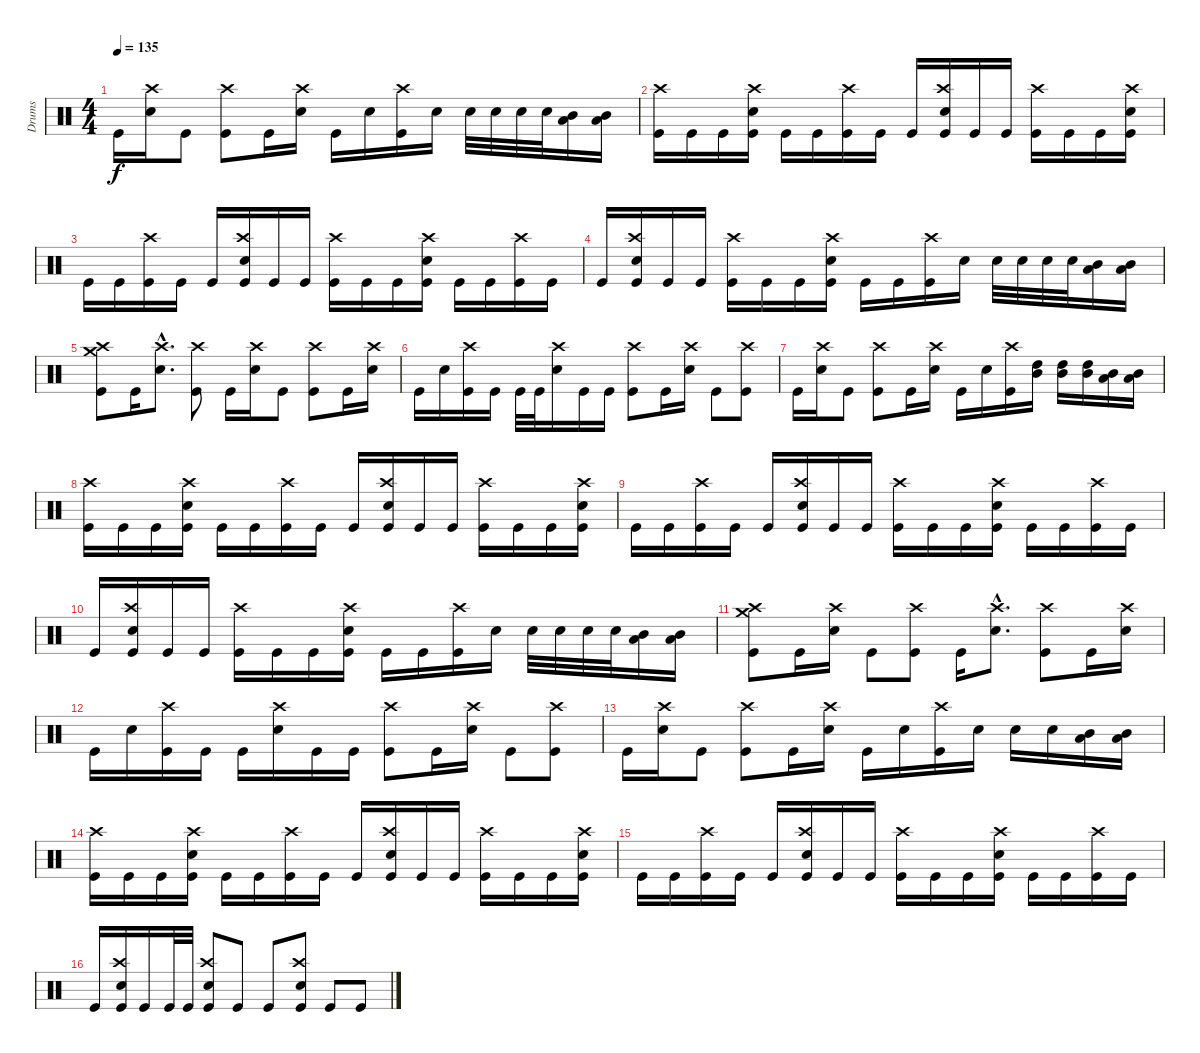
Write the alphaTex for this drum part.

\track ("Drums" "Drums") {instrument percussion}
\staff {score}
\articulation defaults
\ts (4 4)
\tempo 135
\clef neutral
\ks c "Kick (hit)".16{dy f}
("Crash high (hit)" "Electric Snare (hit)").16 "Kick (hit)".8 ("Crash high (hit)" "Kick (hit)").8 "Kick (hit)".16 ("Crash high (hit)" "Electric Snare (hit)").16 "Kick (hit)".16 "Electric Snare (hit)".16 ("Crash high (hit)" "Kick (hit)").16 "Electric Snare (hit)".16 "Electric Snare (hit)".32 "Electric Snare (hit)".32 "Electric Snare (hit)".32 "Electric Snare (hit)".32 ("Mid Tom (hit)" "Low Tom (hit)").16 ("Mid Tom (hit)" "Low Tom (hit)").16 |
("Crash high (hit)" "Kick (hit)").16 "Kick (hit)".16 "Kick (hit)".16 ("Crash high (hit)" "Electric Snare (hit)" "Kick (hit)").16 "Kick (hit)".16 "Kick (hit)".16 ("Crash high (hit)" "Kick (hit)").16 "Kick (hit)".16 "Kick (hit)".16 ("Crash high (hit)" "Electric Snare (hit)" "Kick (hit)").16 "Kick (hit)".16 "Kick (hit)".16 ("Crash high (hit)" "Kick (hit)").16 "Kick (hit)".16 "Kick (hit)".16 ("Crash high (hit)" "Electric Snare (hit)" "Kick (hit)").16 |
"Kick (hit)".16 "Kick (hit)".16 ("Crash high (hit)" "Kick (hit)").16 "Kick (hit)".16 "Kick (hit)".16 ("Crash high (hit)" "Electric Snare (hit)" "Kick (hit)").16 "Kick (hit)".16 "Kick (hit)".16 ("Crash high (hit)" "Kick (hit)").16 "Kick (hit)".16 "Kick (hit)".16 ("Crash high (hit)" "Electric Snare (hit)" "Kick (hit)").16 "Kick (hit)".16 "Kick (hit)".16 ("Crash high (hit)" "Kick (hit)").16 "Kick (hit)".16 |
"Kick (hit)".16 ("Crash high (hit)" "Electric Snare (hit)" "Kick (hit)").16 "Kick (hit)".16 "Kick (hit)".16 ("Crash high (hit)" "Kick (hit)").16 "Kick (hit)".16 "Kick (hit)".16 ("Crash high (hit)" "Electric Snare (hit)" "Kick (hit)").16 "Kick (hit)".16 "Kick (hit)".16 ("Crash high (hit)" "Kick (hit)").16 "Electric Snare (hit)".16 "Electric Snare (hit)".32 "Electric Snare (hit)".32 "Electric Snare (hit)".32 "Electric Snare (hit)".32 ("Mid Tom (hit)" "Low Tom (hit)").16 ("Mid Tom (hit)" "Low Tom (hit)").16 |
("Crash medium (hit)" "Crash high (hit)" "Kick (hit)").8 "Kick (hit)".16 ("Crash high (hit)"{hac} "Electric Snare (hit)"{hac}).8{d} ("Crash high (hit)" "Kick (hit)").8 "Kick (hit)".16 ("Crash high (hit)" "Electric Snare (hit)").16 "Kick (hit)".8 ("Crash high (hit)" "Kick (hit)").8 "Kick (hit)".16 ("Crash high (hit)" "Electric Snare (hit)").16 |
"Kick (hit)".16 "Electric Snare (hit)".16 ("Crash high (hit)" "Kick (hit)").16 "Kick (hit)".16 "Kick (hit)".32 "Kick (hit)".32 ("Crash high (hit)" "Electric Snare (hit)").16 "Kick (hit)".16 "Kick (hit)".16 ("Crash high (hit)" "Kick (hit)").8 "Kick (hit)".16 ("Crash high (hit)" "Electric Snare (hit)").16 "Kick (hit)".8 ("Crash high (hit)" "Kick (hit)").8 |
"Kick (hit)".16 ("Crash high (hit)" "Electric Snare (hit)").16 "Kick (hit)".8 ("Crash high (hit)" "Kick (hit)").8 "Kick (hit)".16 ("Crash high (hit)" "Electric Snare (hit)").16 "Kick (hit)".16 "Electric Snare (hit)".16 ("Crash high (hit)" "Kick (hit)").16 ("High Tom (hit)" "Mid Tom (hit)").16 ("High Tom (hit)" "Mid Tom (hit)").16 ("High Tom (hit)" "Mid Tom (hit)").16 ("Mid Tom (hit)" "Low Tom (hit)").16 ("Mid Tom (hit)" "Low Tom (hit)").16 |
("Crash high (hit)" "Kick (hit)").16 "Kick (hit)".16 "Kick (hit)".16 ("Crash high (hit)" "Electric Snare (hit)" "Kick (hit)").16 "Kick (hit)".16 "Kick (hit)".16 ("Crash high (hit)" "Kick (hit)").16 "Kick (hit)".16 "Kick (hit)".16 ("Crash high (hit)" "Electric Snare (hit)" "Kick (hit)").16 "Kick (hit)".16 "Kick (hit)".16 ("Crash high (hit)" "Kick (hit)").16 "Kick (hit)".16 "Kick (hit)".16 ("Crash high (hit)" "Electric Snare (hit)" "Kick (hit)").16 |
"Kick (hit)".16 "Kick (hit)".16 ("Crash high (hit)" "Kick (hit)").16 "Kick (hit)".16 "Kick (hit)".16 ("Crash high (hit)" "Electric Snare (hit)" "Kick (hit)").16 "Kick (hit)".16 "Kick (hit)".16 ("Crash high (hit)" "Kick (hit)").16 "Kick (hit)".16 "Kick (hit)".16 ("Crash high (hit)" "Electric Snare (hit)" "Kick (hit)").16 "Kick (hit)".16 "Kick (hit)".16 ("Crash high (hit)" "Kick (hit)").16 "Kick (hit)".16 |
"Kick (hit)".16 ("Crash high (hit)" "Electric Snare (hit)" "Kick (hit)").16 "Kick (hit)".16 "Kick (hit)".16 ("Crash high (hit)" "Kick (hit)").16 "Kick (hit)".16 "Kick (hit)".16 ("Crash high (hit)" "Electric Snare (hit)" "Kick (hit)").16 "Kick (hit)".16 "Kick (hit)".16 ("Crash high (hit)" "Kick (hit)").16 "Electric Snare (hit)".16 "Electric Snare (hit)".32 "Electric Snare (hit)".32 "Electric Snare (hit)".32 "Electric Snare (hit)".32 ("Mid Tom (hit)" "Low Tom (hit)").16 ("Mid Tom (hit)" "Low Tom (hit)").16 |
("Crash medium (hit)" "Crash high (hit)" "Kick (hit)").8 "Kick (hit)".16 ("Crash high (hit)" "Electric Snare (hit)").16 "Kick (hit)".8 ("Crash high (hit)" "Kick (hit)").8 "Kick (hit)".16 ("Crash high (hit)"{hac} "Electric Snare (hit)"{hac}).8{d} ("Crash high (hit)" "Kick (hit)").8 "Kick (hit)".16 ("Crash high (hit)" "Electric Snare (hit)").16 |
"Kick (hit)".16 "Electric Snare (hit)".16 ("Crash high (hit)" "Kick (hit)").16 "Kick (hit)".16 "Kick (hit)".16 ("Crash high (hit)" "Electric Snare (hit)").16 "Kick (hit)".16 "Kick (hit)".16 ("Crash high (hit)" "Kick (hit)").8 "Kick (hit)".16 ("Crash high (hit)" "Electric Snare (hit)").16 "Kick (hit)".8 ("Crash high (hit)" "Kick (hit)").8 |
"Kick (hit)".16 ("Crash high (hit)" "Electric Snare (hit)").16 "Kick (hit)".8 ("Crash high (hit)" "Kick (hit)").8 "Kick (hit)".16 ("Crash high (hit)" "Electric Snare (hit)").16 "Kick (hit)".16 "Electric Snare (hit)".16 ("Crash high (hit)" "Kick (hit)").16 "Electric Snare (hit)".16 "Electric Snare (hit)".16 "Electric Snare (hit)".16 ("Mid Tom (hit)" "Low Tom (hit)").16 ("Mid Tom (hit)" "Low Tom (hit)").16 |
("Crash high (hit)" "Kick (hit)").16 "Kick (hit)".16 "Kick (hit)".16 ("Crash high (hit)" "Electric Snare (hit)" "Kick (hit)").16 "Kick (hit)".16 "Kick (hit)".16 ("Crash high (hit)" "Kick (hit)").16 "Kick (hit)".16 "Kick (hit)".16 ("Crash high (hit)" "Electric Snare (hit)" "Kick (hit)").16 "Kick (hit)".16 "Kick (hit)".16 ("Crash high (hit)" "Kick (hit)").16 "Kick (hit)".16 "Kick (hit)".16 ("Crash high (hit)" "Electric Snare (hit)" "Kick (hit)").16 |
"Kick (hit)".16 "Kick (hit)".16 ("Crash high (hit)" "Kick (hit)").16 "Kick (hit)".16 "Kick (hit)".16 ("Crash high (hit)" "Electric Snare (hit)" "Kick (hit)").16 "Kick (hit)".16 "Kick (hit)".16 ("Crash high (hit)" "Kick (hit)").16 "Kick (hit)".16 "Kick (hit)".16 ("Crash high (hit)" "Electric Snare (hit)" "Kick (hit)").16 "Kick (hit)".16 "Kick (hit)".16 ("Crash high (hit)" "Kick (hit)").16 "Kick (hit)".16 |
"Kick (hit)".16 ("Crash high (hit)" "Electric Snare (hit)" "Kick (hit)").16 "Kick (hit)".16 "Kick (hit)".32 "Kick (hit)".32 ("Crash high (hit)" "Electric Snare (hit)" "Kick (hit)").8 "Kick (hit)".8 "Kick (hit)".8 ("Crash high (hit)" "Electric Snare (hit)" "Kick (hit)").8 "Kick (hit)".8 "Kick (hit)".8
